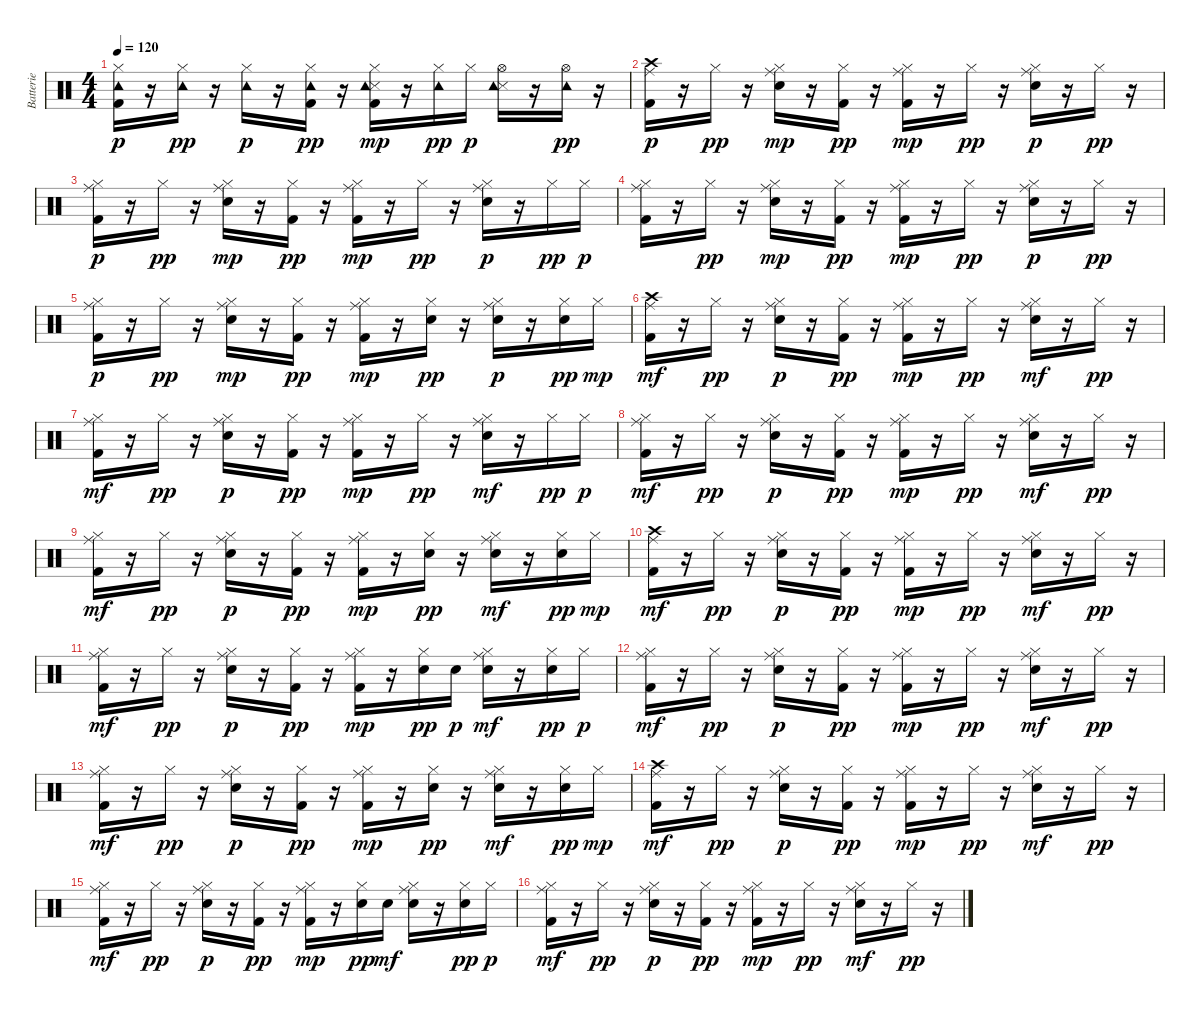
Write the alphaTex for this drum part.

\track ("Batterie" "Batterie") {instrument percussion}
\staff {score}
\articulation defaults
\ts (4 4)
\tempo 120
\clef neutral
\ks c
("Kick (hit) 2" "Hi-Hat (closed)" "Tambourine (hit)").16{dy p} r.16 ("Hi-Hat (closed)" "Tambourine (hit)").16{dy pp} r.16 ("Hi-Hat (closed)" "Tambourine (hit)").16{dy p} r.16 ("Kick (hit) 2" "Hi-Hat (closed)" "Tambourine (hit)").16{dy pp} r.16 ("Kick (hit) 2" "Hi-Hat (closed)" "Snare (side stick) 3" "Tambourine (hit)").16{dy mp} r.16 ("Hi-Hat (closed)" "Tambourine (hit)").16{dy pp} "Hi-Hat (closed)".16{dy p} ("Hi-Hat (open)" "Snare (side stick) 3" "Tambourine (hit)").16 r.16 ("Hi-Hat (open)" "Tambourine (hit)").16{dy pp} r.16 |
("Kick (hit) 2" "Crash high (hit)" "Ride (middle)").16{dy p} r.16 "Hi-Hat (closed)".16{dy pp} r.16 ("Snare (hit) 2" "Hi-Hat (closed)" "Ride (middle)").16{dy mp} r.16 ("Kick (hit) 2" "Hi-Hat (closed)").16{dy pp} r.16 ("Kick (hit) 2" "Hi-Hat (closed)" "Ride (middle)").16{dy mp} r.16 "Hi-Hat (closed)".16{dy pp} r.16 ("Snare (hit) 2" "Hi-Hat (closed)" "Ride (middle)").16{dy p} r.16 "Hi-Hat (closed)".16{dy pp} r.16 |
("Kick (hit) 2" "Hi-Hat (closed)" "Ride (middle)").16{dy p} r.16 "Hi-Hat (closed)".16{dy pp} r.16 ("Snare (hit) 2" "Hi-Hat (closed)" "Ride (middle)").16{dy mp} r.16 ("Kick (hit) 2" "Hi-Hat (closed)").16{dy pp} r.16 ("Kick (hit) 2" "Hi-Hat (closed)" "Ride (middle)").16{dy mp} r.16 "Hi-Hat (closed)".16{dy pp} r.16 ("Snare (hit) 2" "Hi-Hat (closed)" "Ride (middle)").16{dy p} r.16 "Hi-Hat (closed)".16{dy pp} "Hi-Hat (closed)".16{dy p} |
("Kick (hit) 2" "Hi-Hat (closed)" "Ride (middle)").16 r.16 "Hi-Hat (closed)".16{dy pp} r.16 ("Snare (hit) 2" "Hi-Hat (closed)" "Ride (middle)").16{dy mp} r.16 ("Kick (hit) 2" "Hi-Hat (closed)").16{dy pp} r.16 ("Kick (hit) 2" "Hi-Hat (closed)" "Ride (middle)").16{dy mp} r.16 "Hi-Hat (closed)".16{dy pp} r.16 ("Snare (hit) 2" "Hi-Hat (closed)" "Ride (middle)").16{dy p} r.16 "Hi-Hat (closed)".16{dy pp} r.16 |
("Kick (hit) 2" "Hi-Hat (closed)" "Ride (middle)").16{dy p} r.16 "Hi-Hat (closed)".16{dy pp} r.16 ("Snare (hit) 2" "Hi-Hat (closed)" "Ride (middle)").16{dy mp} r.16 ("Kick (hit) 2" "Hi-Hat (closed)").16{dy pp} r.16 ("Kick (hit) 2" "Hi-Hat (closed)" "Ride (middle)").16{dy mp} r.16 ("Snare (hit) 2" "Hi-Hat (closed)").16{dy pp} r.16 ("Snare (hit) 2" "Hi-Hat (closed)" "Ride (middle)").16{dy p} r.16 ("Snare (hit) 2" "Hi-Hat (closed)").16{dy pp} "Hi-Hat (closed)".16{dy mp} |
("Kick (hit) 2" "Crash high (hit)" "Ride (middle)").16{dy mf} r.16 "Hi-Hat (closed)".16{dy pp} r.16 ("Snare (hit) 2" "Hi-Hat (closed)" "Ride (middle)").16{dy p} r.16 ("Kick (hit) 2" "Hi-Hat (closed)").16{dy pp} r.16 ("Kick (hit) 2" "Hi-Hat (closed)" "Ride (middle)").16{dy mp} r.16 "Hi-Hat (closed)".16{dy pp} r.16 ("Snare (hit) 2" "Hi-Hat (closed)" "Ride (middle)").16{dy mf} r.16 "Hi-Hat (closed)".16{dy pp} r.16 |
("Kick (hit) 2" "Hi-Hat (closed)" "Ride (middle)").16{dy mf} r.16 "Hi-Hat (closed)".16{dy pp} r.16 ("Snare (hit) 2" "Hi-Hat (closed)" "Ride (middle)").16{dy p} r.16 ("Kick (hit) 2" "Hi-Hat (closed)").16{dy pp} r.16 ("Kick (hit) 2" "Hi-Hat (closed)" "Ride (middle)").16{dy mp} r.16 "Hi-Hat (closed)".16{dy pp} r.16 ("Snare (hit) 2" "Hi-Hat (closed)" "Ride (middle)").16{dy mf} r.16 "Hi-Hat (closed)".16{dy pp} "Hi-Hat (closed)".16{dy p} |
("Kick (hit) 2" "Hi-Hat (closed)" "Ride (middle)").16{dy mf} r.16 "Hi-Hat (closed)".16{dy pp} r.16 ("Snare (hit) 2" "Hi-Hat (closed)" "Ride (middle)").16{dy p} r.16 ("Kick (hit) 2" "Hi-Hat (closed)").16{dy pp} r.16 ("Kick (hit) 2" "Hi-Hat (closed)" "Ride (middle)").16{dy mp} r.16 "Hi-Hat (closed)".16{dy pp} r.16 ("Snare (hit) 2" "Hi-Hat (closed)" "Ride (middle)").16{dy mf} r.16 "Hi-Hat (closed)".16{dy pp} r.16 |
("Kick (hit) 2" "Hi-Hat (closed)" "Ride (middle)").16{dy mf} r.16 "Hi-Hat (closed)".16{dy pp} r.16 ("Snare (hit) 2" "Hi-Hat (closed)" "Ride (middle)").16{dy p} r.16 ("Kick (hit) 2" "Hi-Hat (closed)").16{dy pp} r.16 ("Kick (hit) 2" "Hi-Hat (closed)" "Ride (middle)").16{dy mp} r.16 ("Snare (hit) 2" "Hi-Hat (closed)").16{dy pp} r.16 ("Snare (hit) 2" "Hi-Hat (closed)" "Ride (middle)").16{dy mf} r.16 ("Snare (hit) 2" "Hi-Hat (closed)").16{dy pp} "Hi-Hat (closed)".16{dy mp} |
("Kick (hit) 2" "Crash high (hit)" "Ride (middle)").16{dy mf} r.16 "Hi-Hat (closed)".16{dy pp} r.16 ("Snare (hit) 2" "Hi-Hat (closed)" "Ride (middle)").16{dy p} r.16 ("Kick (hit) 2" "Hi-Hat (closed)").16{dy pp} r.16 ("Kick (hit) 2" "Hi-Hat (closed)" "Ride (middle)").16{dy mp} r.16 "Hi-Hat (closed)".16{dy pp} r.16 ("Snare (hit) 2" "Hi-Hat (closed)" "Ride (middle)").16{dy mf} r.16 "Hi-Hat (closed)".16{dy pp} r.16 |
("Kick (hit) 2" "Hi-Hat (closed)" "Ride (middle)").16{dy mf} r.16 "Hi-Hat (closed)".16{dy pp} r.16 ("Snare (hit) 2" "Hi-Hat (closed)" "Ride (middle)").16{dy p} r.16 ("Kick (hit) 2" "Hi-Hat (closed)").16{dy pp} r.16 ("Kick (hit) 2" "Hi-Hat (closed)" "Ride (middle)").16{dy mp} r.16 ("Snare (hit) 2" "Hi-Hat (closed)").16{dy pp} "Snare (hit) 2".16{dy p} ("Snare (hit) 2" "Hi-Hat (closed)" "Ride (middle)").16{dy mf} r.16 ("Snare (hit) 2" "Hi-Hat (closed)").16{dy pp} "Hi-Hat (closed)".16{dy p} |
("Kick (hit) 2" "Hi-Hat (closed)" "Ride (middle)").16{dy mf} r.16 "Hi-Hat (closed)".16{dy pp} r.16 ("Snare (hit) 2" "Hi-Hat (closed)" "Ride (middle)").16{dy p} r.16 ("Kick (hit) 2" "Hi-Hat (closed)").16{dy pp} r.16 ("Kick (hit) 2" "Hi-Hat (closed)" "Ride (middle)").16{dy mp} r.16 "Hi-Hat (closed)".16{dy pp} r.16 ("Snare (hit) 2" "Hi-Hat (closed)" "Ride (middle)").16{dy mf} r.16 "Hi-Hat (closed)".16{dy pp} r.16 |
("Kick (hit) 2" "Hi-Hat (closed)" "Ride (middle)").16{dy mf} r.16 "Hi-Hat (closed)".16{dy pp} r.16 ("Snare (hit) 2" "Hi-Hat (closed)" "Ride (middle)").16{dy p} r.16 ("Kick (hit) 2" "Hi-Hat (closed)").16{dy pp} r.16 ("Kick (hit) 2" "Hi-Hat (closed)" "Ride (middle)").16{dy mp} r.16 ("Snare (hit) 2" "Hi-Hat (closed)").16{dy pp} r.16 ("Snare (hit) 2" "Hi-Hat (closed)" "Ride (middle)").16{dy mf} r.16 ("Snare (hit) 2" "Hi-Hat (closed)").16{dy pp} "Hi-Hat (closed)".16{dy mp} |
("Kick (hit) 2" "Crash high (hit)" "Ride (middle)").16{dy mf} r.16 "Hi-Hat (closed)".16{dy pp} r.16 ("Snare (hit) 2" "Hi-Hat (closed)" "Ride (middle)").16{dy p} r.16 ("Kick (hit) 2" "Hi-Hat (closed)").16{dy pp} r.16 ("Kick (hit) 2" "Hi-Hat (closed)" "Ride (middle)").16{dy mp} r.16 "Hi-Hat (closed)".16{dy pp} r.16 ("Snare (hit) 2" "Hi-Hat (closed)" "Ride (middle)").16{dy mf} r.16 "Hi-Hat (closed)".16{dy pp} r.16 |
("Kick (hit) 2" "Hi-Hat (closed)" "Ride (middle)").16{dy mf} r.16 "Hi-Hat (closed)".16{dy pp} r.16 ("Snare (hit) 2" "Hi-Hat (closed)" "Ride (middle)").16{dy p} r.16 ("Kick (hit) 2" "Hi-Hat (closed)").16{dy pp} r.16 ("Kick (hit) 2" "Hi-Hat (closed)" "Ride (middle)").16{dy mp} r.16 ("Snare (hit) 2" "Hi-Hat (closed)").16{dy pp} "Snare (hit) 2".16{dy mf} ("Snare (hit) 2" "Hi-Hat (closed)" "Ride (middle)").16 r.16 ("Snare (hit) 2" "Hi-Hat (closed)").16{dy pp} "Hi-Hat (closed)".16{dy p} |
("Kick (hit) 2" "Hi-Hat (closed)" "Ride (middle)").16{dy mf} r.16 "Hi-Hat (closed)".16{dy pp} r.16 ("Snare (hit) 2" "Hi-Hat (closed)" "Ride (middle)").16{dy p} r.16 ("Kick (hit) 2" "Hi-Hat (closed)").16{dy pp} r.16 ("Kick (hit) 2" "Hi-Hat (closed)" "Ride (middle)").16{dy mp} r.16 "Hi-Hat (closed)".16{dy pp} r.16 ("Snare (hit) 2" "Hi-Hat (closed)" "Ride (middle)").16{dy mf} r.16 "Hi-Hat (closed)".16{dy pp} r.16
